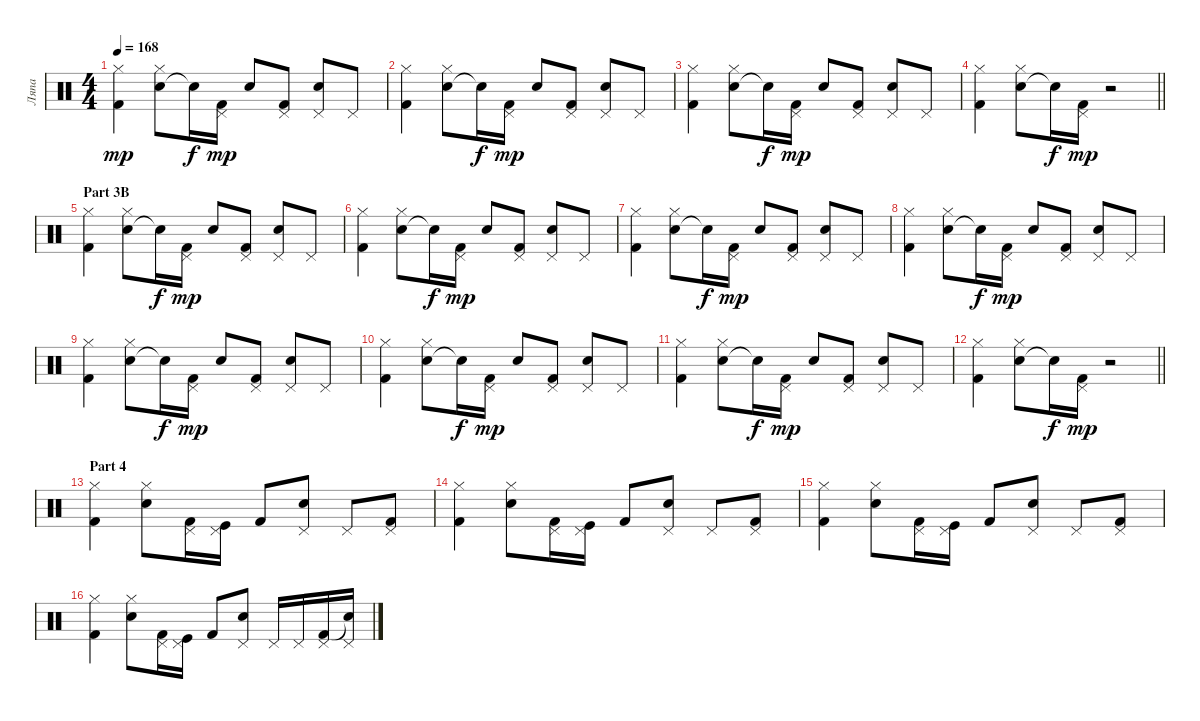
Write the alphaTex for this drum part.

\track ("Ляпа" "Ляпа") {instrument percussion}
\staff {score}
\articulation defaults
\ts (4 4)
\tempo 168
\clef neutral
\ks c
("Kick (hit) 2" "Hi-Hat (closed)").4{dy mp} ("Electric Snare (hit)" "Hi-Hat (closed)").8 "Snare (hit)"{t}.16{dy f} ("Kick (hit) 2" "Pedal Hi-Hat (hit)").16{dy mp} "Electric Snare (hit)".8 ("Kick (hit) 2" "Pedal Hi-Hat (hit)").8 ("Electric Snare (hit)" "Pedal Hi-Hat (hit)").8 "Pedal Hi-Hat (hit)".8 |
("Kick (hit) 2" "Hi-Hat (closed)").4 ("Electric Snare (hit)" "Hi-Hat (closed)").8 "Snare (hit)"{t}.16{dy f} ("Kick (hit) 2" "Pedal Hi-Hat (hit)").16{dy mp} "Electric Snare (hit)".8 ("Kick (hit) 2" "Pedal Hi-Hat (hit)").8 ("Electric Snare (hit)" "Pedal Hi-Hat (hit)").8 "Pedal Hi-Hat (hit)".8 |
("Kick (hit) 2" "Hi-Hat (closed)").4 ("Electric Snare (hit)" "Hi-Hat (closed)").8 "Snare (hit)"{t}.16{dy f} ("Kick (hit) 2" "Pedal Hi-Hat (hit)").16{dy mp} "Electric Snare (hit)".8 ("Kick (hit) 2" "Pedal Hi-Hat (hit)").8 ("Electric Snare (hit)" "Pedal Hi-Hat (hit)").8 "Pedal Hi-Hat (hit)".8 |
\barLineRight lightlight
("Kick (hit) 2" "Hi-Hat (closed)").4 ("Electric Snare (hit)" "Hi-Hat (closed)").8 "Snare (hit)"{t}.16{dy f} ("Kick (hit) 2" "Pedal Hi-Hat (hit)").16{dy mp} r.2 |
\section ("" "Part 3B")
("Kick (hit) 2" "Hi-Hat (closed)").4 ("Electric Snare (hit)" "Hi-Hat (closed)").8 "Snare (hit)"{t}.16{dy f} ("Kick (hit) 2" "Pedal Hi-Hat (hit)").16{dy mp} "Electric Snare (hit)".8 ("Kick (hit) 2" "Pedal Hi-Hat (hit)").8 ("Electric Snare (hit)" "Pedal Hi-Hat (hit)").8 "Pedal Hi-Hat (hit)".8 |
("Kick (hit) 2" "Hi-Hat (closed)").4 ("Electric Snare (hit)" "Hi-Hat (closed)").8 "Snare (hit)"{t}.16{dy f} ("Kick (hit) 2" "Pedal Hi-Hat (hit)").16{dy mp} "Electric Snare (hit)".8 ("Kick (hit) 2" "Pedal Hi-Hat (hit)").8 ("Electric Snare (hit)" "Pedal Hi-Hat (hit)").8 "Pedal Hi-Hat (hit)".8 |
("Kick (hit) 2" "Hi-Hat (closed)").4 ("Electric Snare (hit)" "Hi-Hat (closed)").8 "Snare (hit)"{t}.16{dy f} ("Kick (hit) 2" "Pedal Hi-Hat (hit)").16{dy mp} "Electric Snare (hit)".8 ("Kick (hit) 2" "Pedal Hi-Hat (hit)").8 ("Electric Snare (hit)" "Pedal Hi-Hat (hit)").8 "Pedal Hi-Hat (hit)".8 |
("Kick (hit) 2" "Hi-Hat (closed)").4 ("Electric Snare (hit)" "Hi-Hat (closed)").8 "Snare (hit)"{t}.16{dy f} ("Kick (hit) 2" "Pedal Hi-Hat (hit)").16{dy mp} "Electric Snare (hit)".8 ("Kick (hit) 2" "Pedal Hi-Hat (hit)").8 ("Electric Snare (hit)" "Pedal Hi-Hat (hit)").8 "Pedal Hi-Hat (hit)".8 |
("Kick (hit) 2" "Hi-Hat (closed)").4 ("Electric Snare (hit)" "Hi-Hat (closed)").8 "Snare (hit)"{t}.16{dy f} ("Kick (hit) 2" "Pedal Hi-Hat (hit)").16{dy mp} "Electric Snare (hit)".8 ("Kick (hit) 2" "Pedal Hi-Hat (hit)").8 ("Electric Snare (hit)" "Pedal Hi-Hat (hit)").8 "Pedal Hi-Hat (hit)".8 |
("Kick (hit) 2" "Hi-Hat (closed)").4 ("Electric Snare (hit)" "Hi-Hat (closed)").8 "Snare (hit)"{t}.16{dy f} ("Kick (hit) 2" "Pedal Hi-Hat (hit)").16{dy mp} "Electric Snare (hit)".8 ("Kick (hit) 2" "Pedal Hi-Hat (hit)").8 ("Electric Snare (hit)" "Pedal Hi-Hat (hit)").8 "Pedal Hi-Hat (hit)".8 |
("Kick (hit) 2" "Hi-Hat (closed)").4 ("Electric Snare (hit)" "Hi-Hat (closed)").8 "Snare (hit)"{t}.16{dy f} ("Kick (hit) 2" "Pedal Hi-Hat (hit)").16{dy mp} "Electric Snare (hit)".8 ("Kick (hit) 2" "Pedal Hi-Hat (hit)").8 ("Electric Snare (hit)" "Pedal Hi-Hat (hit)").8 "Pedal Hi-Hat (hit)".8 |
\barLineRight lightlight
("Kick (hit) 2" "Hi-Hat (closed)").4 ("Electric Snare (hit)" "Hi-Hat (closed)").8 "Snare (hit)"{t}.16{dy f} ("Kick (hit) 2" "Pedal Hi-Hat (hit)").16{dy mp} r.2 |
\section ("" "Part 4")
("Kick (hit) 2" "Hi-Hat (closed)").4 ("Electric Snare (hit)" "Hi-Hat (closed)").8 ("Kick (hit) 2" "Pedal Hi-Hat (hit)").16 ("Kick (hit)" "Pedal Hi-Hat (hit)").16 "Kick (hit) 2".8 ("Electric Snare (hit)" "Pedal Hi-Hat (hit)").8 "Pedal Hi-Hat (hit)".8 ("Kick (hit) 2" "Pedal Hi-Hat (hit)").8 |
("Kick (hit) 2" "Hi-Hat (closed)").4 ("Electric Snare (hit)" "Hi-Hat (closed)").8 ("Kick (hit) 2" "Pedal Hi-Hat (hit)").16 ("Kick (hit)" "Pedal Hi-Hat (hit)").16 "Kick (hit) 2".8 ("Electric Snare (hit)" "Pedal Hi-Hat (hit)").8 "Pedal Hi-Hat (hit)".8 ("Kick (hit) 2" "Pedal Hi-Hat (hit)").8 |
("Kick (hit) 2" "Hi-Hat (closed)").4 ("Electric Snare (hit)" "Hi-Hat (closed)").8 ("Kick (hit) 2" "Pedal Hi-Hat (hit)").16 ("Kick (hit)" "Pedal Hi-Hat (hit)").16 "Kick (hit) 2".8 ("Electric Snare (hit)" "Pedal Hi-Hat (hit)").8 "Pedal Hi-Hat (hit)".8 ("Kick (hit) 2" "Pedal Hi-Hat (hit)").8 |
("Kick (hit) 2" "Hi-Hat (closed)").4 ("Electric Snare (hit)" "Hi-Hat (closed)").8 ("Kick (hit) 2" "Pedal Hi-Hat (hit)").16 ("Kick (hit)" "Pedal Hi-Hat (hit)").16 "Kick (hit) 2".8 ("Electric Snare (hit)" "Pedal Hi-Hat (hit)").8 "Pedal Hi-Hat (hit)".16 "Pedal Hi-Hat (hit)".16 ("Kick (hit) 2" "Pedal Hi-Hat (hit)").16 ("Snare (hit)"{t} "Pedal Hi-Hat (hit)").16
